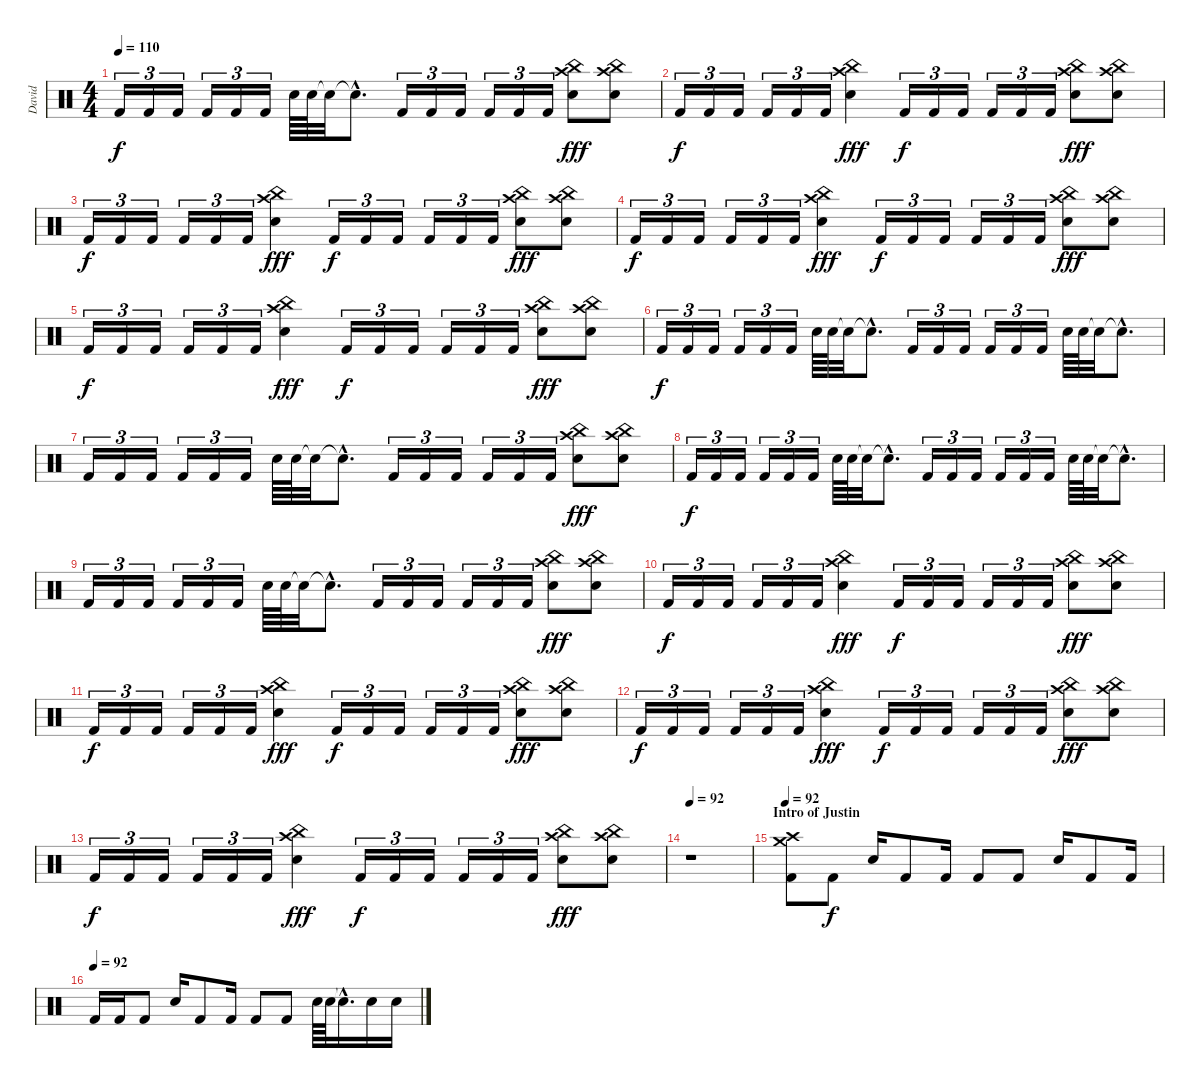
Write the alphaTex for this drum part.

\track ("David" "David") {instrument percussion}
\staff {score}
\articulation defaults
\ts (4 4)
\tempo 110
\clef neutral
\ks c "Kick (hit) 2".16{tu (3 2) dy f} "Kick (hit) 2".16{tu (3 2)} "Kick (hit) 2".16{tu (3 2)} "Kick (hit) 2".16{tu (3 2)} "Kick (hit) 2".16{tu (3 2)} "Kick (hit) 2".16{tu (3 2)} "Snare (hit) 2".64 "Snare (hit) 2".64 "Snare (hit)"{t}.32 "Snare (hit)"{hac t}.8{d} "Kick (hit) 2".16{tu (3 2)} "Kick (hit) 2".16{tu (3 2)} "Kick (hit) 2".16{tu (3 2)} "Kick (hit) 2".16{tu (3 2)} "Kick (hit) 2".16{tu (3 2)} "Kick (hit) 2".16{tu (3 2)}
("Crash high (hit)" "China (hit)" "Snare (hit) 2").8{dy fff} ("Crash high (hit)" "China (hit)" "Snare (hit) 2").8 |
"Kick (hit) 2".16{tu (3 2) dy f} "Kick (hit) 2".16{tu (3 2)} "Kick (hit) 2".16{tu (3 2)} "Kick (hit) 2".16{tu (3 2)} "Kick (hit) 2".16{tu (3 2)} "Kick (hit) 2".16{tu (3 2)} ("Crash high (hit)" "China (hit)" "Snare (hit) 2").4{dy fff} "Kick (hit) 2".16{tu (3 2) dy f} "Kick (hit) 2".16{tu (3 2)} "Kick (hit) 2".16{tu (3 2)} "Kick (hit) 2".16{tu (3 2)} "Kick (hit) 2".16{tu (3 2)} "Kick (hit) 2".16{tu (3 2)} ("Crash high (hit)" "China (hit)" "Snare (hit) 2").8{dy fff} ("Crash high (hit)" "China (hit)" "Snare (hit) 2").8 |
"Kick (hit) 2".16{tu (3 2) dy f} "Kick (hit) 2".16{tu (3 2)} "Kick (hit) 2".16{tu (3 2)} "Kick (hit) 2".16{tu (3 2)} "Kick (hit) 2".16{tu (3 2)} "Kick (hit) 2".16{tu (3 2)} ("Crash high (hit)" "China (hit)" "Snare (hit) 2").4{dy fff} "Kick (hit) 2".16{tu (3 2) dy f} "Kick (hit) 2".16{tu (3 2)} "Kick (hit) 2".16{tu (3 2)} "Kick (hit) 2".16{tu (3 2)} "Kick (hit) 2".16{tu (3 2)} "Kick (hit) 2".16{tu (3 2)} ("Crash high (hit)" "China (hit)" "Snare (hit) 2").8{dy fff} ("Crash high (hit)" "China (hit)" "Snare (hit) 2").8 |
"Kick (hit) 2".16{tu (3 2) dy f} "Kick (hit) 2".16{tu (3 2)} "Kick (hit) 2".16{tu (3 2)} "Kick (hit) 2".16{tu (3 2)} "Kick (hit) 2".16{tu (3 2)} "Kick (hit) 2".16{tu (3 2)} ("Crash high (hit)" "China (hit)" "Snare (hit) 2").4{dy fff} "Kick (hit) 2".16{tu (3 2) dy f} "Kick (hit) 2".16{tu (3 2)} "Kick (hit) 2".16{tu (3 2)} "Kick (hit) 2".16{tu (3 2)} "Kick (hit) 2".16{tu (3 2)} "Kick (hit) 2".16{tu (3 2)} ("Crash high (hit)" "China (hit)" "Snare (hit) 2").8{dy fff} ("Crash high (hit)" "China (hit)" "Snare (hit) 2").8 |
"Kick (hit) 2".16{tu (3 2) dy f} "Kick (hit) 2".16{tu (3 2)} "Kick (hit) 2".16{tu (3 2)} "Kick (hit) 2".16{tu (3 2)} "Kick (hit) 2".16{tu (3 2)} "Kick (hit) 2".16{tu (3 2)} ("Crash high (hit)" "China (hit)" "Snare (hit) 2").4{dy fff} "Kick (hit) 2".16{tu (3 2) dy f} "Kick (hit) 2".16{tu (3 2)} "Kick (hit) 2".16{tu (3 2)} "Kick (hit) 2".16{tu (3 2)} "Kick (hit) 2".16{tu (3 2)} "Kick (hit) 2".16{tu (3 2)} ("Crash high (hit)" "China (hit)" "Snare (hit) 2").8{dy fff} ("Crash high (hit)" "China (hit)" "Snare (hit) 2").8 |
"Kick (hit) 2".16{tu (3 2) dy f} "Kick (hit) 2".16{tu (3 2)} "Kick (hit) 2".16{tu (3 2)} "Kick (hit) 2".16{tu (3 2)} "Kick (hit) 2".16{tu (3 2)} "Kick (hit) 2".16{tu (3 2)} "Snare (hit) 2".64 "Snare (hit) 2".64 "Snare (hit)"{t}.32 "Snare (hit)"{hac t}.8{d} "Kick (hit) 2".16{tu (3 2)} "Kick (hit) 2".16{tu (3 2)} "Kick (hit) 2".16{tu (3 2)} "Kick (hit) 2".16{tu (3 2)} "Kick (hit) 2".16{tu (3 2)} "Kick (hit) 2".16{tu (3 2)} "Snare (hit) 2".64 "Snare (hit) 2".64 "Snare (hit) 2"{t}.32 "Snare (hit)"{hac t}.8{d} |
"Kick (hit) 2".16{tu (3 2)} "Kick (hit) 2".16{tu (3 2)} "Kick (hit) 2".16{tu (3 2)} "Kick (hit) 2".16{tu (3 2)} "Kick (hit) 2".16{tu (3 2)} "Kick (hit) 2".16{tu (3 2)} "Snare (hit) 2".64 "Snare (hit) 2".64 "Snare (hit)"{t}.32 "Snare (hit)"{hac t}.8{d} "Kick (hit) 2".16{tu (3 2)} "Kick (hit) 2".16{tu (3 2)} "Kick (hit) 2".16{tu (3 2)} "Kick (hit) 2".16{tu (3 2)} "Kick (hit) 2".16{tu (3 2)} "Kick (hit) 2".16{tu (3 2)} ("Crash high (hit)" "China (hit)" "Snare (hit) 2").8{dy fff} ("Crash high (hit)" "China (hit)" "Snare (hit) 2").8 |
"Kick (hit) 2".16{tu (3 2) dy f} "Kick (hit) 2".16{tu (3 2)} "Kick (hit) 2".16{tu (3 2)} "Kick (hit) 2".16{tu (3 2)} "Kick (hit) 2".16{tu (3 2)} "Kick (hit) 2".16{tu (3 2)} "Snare (hit) 2".64 "Snare (hit) 2".64 "Snare (hit)"{t}.32 "Snare (hit)"{hac t}.8{d} "Kick (hit) 2".16{tu (3 2)} "Kick (hit) 2".16{tu (3 2)} "Kick (hit) 2".16{tu (3 2)} "Kick (hit) 2".16{tu (3 2)} "Kick (hit) 2".16{tu (3 2)} "Kick (hit) 2".16{tu (3 2)} "Snare (hit) 2".64 "Snare (hit) 2".64 "Snare (hit) 2"{t}.32 "Snare (hit)"{hac t}.8{d} |
"Kick (hit) 2".16{tu (3 2)} "Kick (hit) 2".16{tu (3 2)} "Kick (hit) 2".16{tu (3 2)} "Kick (hit) 2".16{tu (3 2)} "Kick (hit) 2".16{tu (3 2)} "Kick (hit) 2".16{tu (3 2)} "Snare (hit) 2".64 "Snare (hit) 2".64 "Snare (hit)"{t}.32 "Snare (hit)"{hac t}.8{d} "Kick (hit) 2".16{tu (3 2)} "Kick (hit) 2".16{tu (3 2)} "Kick (hit) 2".16{tu (3 2)} "Kick (hit) 2".16{tu (3 2)} "Kick (hit) 2".16{tu (3 2)} "Kick (hit) 2".16{tu (3 2)} ("Crash high (hit)" "China (hit)" "Snare (hit) 2").8{dy fff} ("Crash high (hit)" "China (hit)" "Snare (hit) 2").8 |
"Kick (hit) 2".16{tu (3 2) dy f} "Kick (hit) 2".16{tu (3 2)} "Kick (hit) 2".16{tu (3 2)} "Kick (hit) 2".16{tu (3 2)} "Kick (hit) 2".16{tu (3 2)} "Kick (hit) 2".16{tu (3 2)} ("Crash high (hit)" "China (hit)" "Snare (hit) 2").4{dy fff} "Kick (hit) 2".16{tu (3 2) dy f} "Kick (hit) 2".16{tu (3 2)} "Kick (hit) 2".16{tu (3 2)} "Kick (hit) 2".16{tu (3 2)} "Kick (hit) 2".16{tu (3 2)} "Kick (hit) 2".16{tu (3 2)} ("Crash high (hit)" "China (hit)" "Snare (hit) 2").8{dy fff} ("Crash high (hit)" "China (hit)" "Snare (hit) 2").8 |
"Kick (hit) 2".16{tu (3 2) dy f} "Kick (hit) 2".16{tu (3 2)} "Kick (hit) 2".16{tu (3 2)} "Kick (hit) 2".16{tu (3 2)} "Kick (hit) 2".16{tu (3 2)} "Kick (hit) 2".16{tu (3 2)} ("Crash high (hit)" "China (hit)" "Snare (hit) 2").4{dy fff} "Kick (hit) 2".16{tu (3 2) dy f} "Kick (hit) 2".16{tu (3 2)} "Kick (hit) 2".16{tu (3 2)} "Kick (hit) 2".16{tu (3 2)} "Kick (hit) 2".16{tu (3 2)} "Kick (hit) 2".16{tu (3 2)} ("Crash high (hit)" "China (hit)" "Snare (hit) 2").8{dy fff} ("Crash high (hit)" "China (hit)" "Snare (hit) 2").8 |
"Kick (hit) 2".16{tu (3 2) dy f} "Kick (hit) 2".16{tu (3 2)} "Kick (hit) 2".16{tu (3 2)} "Kick (hit) 2".16{tu (3 2)} "Kick (hit) 2".16{tu (3 2)} "Kick (hit) 2".16{tu (3 2)} ("Crash high (hit)" "China (hit)" "Snare (hit) 2").4{dy fff} "Kick (hit) 2".16{tu (3 2) dy f} "Kick (hit) 2".16{tu (3 2)} "Kick (hit) 2".16{tu (3 2)} "Kick (hit) 2".16{tu (3 2)} "Kick (hit) 2".16{tu (3 2)} "Kick (hit) 2".16{tu (3 2)} ("Crash high (hit)" "China (hit)" "Snare (hit) 2").8{dy fff} ("Crash high (hit)" "China (hit)" "Snare (hit) 2").8 |
"Kick (hit) 2".16{tu (3 2) dy f} "Kick (hit) 2".16{tu (3 2)} "Kick (hit) 2".16{tu (3 2)} "Kick (hit) 2".16{tu (3 2)} "Kick (hit) 2".16{tu (3 2)} "Kick (hit) 2".16{tu (3 2)} ("Crash high (hit)" "China (hit)" "Snare (hit) 2").4{dy fff} "Kick (hit) 2".16{tu (3 2) dy f} "Kick (hit) 2".16{tu (3 2)} "Kick (hit) 2".16{tu (3 2)} "Kick (hit) 2".16{tu (3 2)} "Kick (hit) 2".16{tu (3 2)} "Kick (hit) 2".16{tu (3 2)} ("Crash high (hit)" "China (hit)" "Snare (hit) 2").8{dy fff} ("Crash high (hit)" "China (hit)" "Snare (hit) 2").8 |
\tempo 92
r.1 |
\section ("" "Intro of Justin")
\tempo 92
("Crash medium (hit)" "Crash high (hit)" "Kick (hit) 2").8 "Kick (hit) 2".8{dy f} "Snare (hit) 2".16 "Kick (hit) 2".8 "Kick (hit) 2".16 "Kick (hit) 2".8 "Kick (hit) 2".8 "Snare (hit) 2".16 "Kick (hit) 2".8 "Kick (hit) 2".16 |
\tempo (92)
"Kick (hit) 2".16 "Kick (hit) 2".16 "Kick (hit) 2".8 "Snare (hit) 2".16 "Kick (hit) 2".8 "Kick (hit) 2".16 "Kick (hit) 2".8 "Kick (hit) 2".8 "Snare (hit) 2".64 "Snare (hit) 2".64 "Snare (hit)"{hac t}.16{d} "Snare (hit) 2".16 "Snare (hit) 2".16
